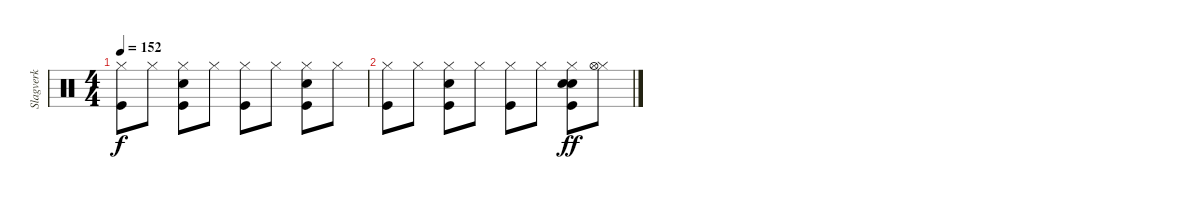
\track ("Slagverk" "Slagverk") {instrument percussion}
\staff {score}
\articulation defaults
\ts (4 4)
\tempo 152
\clef neutral
\ks c
("Kick (hit)" "Hi-Hat (closed)").8{dy f} "Hi-Hat (closed)".8 ("Kick (hit)" "Hi-Hat (closed)" "Snare (hit) 2").8 "Hi-Hat (closed)".8 ("Kick (hit)" "Hi-Hat (closed)").8 "Hi-Hat (closed)".8 ("Kick (hit)" "Hi-Hat (closed)" "Snare (hit) 2").8 "Hi-Hat (closed)".8 |
("Kick (hit)" "Hi-Hat (closed)").8 "Hi-Hat (closed)".8 ("Kick (hit)" "Hi-Hat (closed)" "Snare (hit) 2").8 "Hi-Hat (closed)".8 ("Kick (hit)" "Hi-Hat (closed)").8 "Hi-Hat (closed)".8 ("Kick (hit)" "Hi-Hat (closed)" "Electric Snare (hit)" "Snare (hit) 2").8{dy ff} ("Hi-Hat (closed)" "Hi-Hat (open)").8
